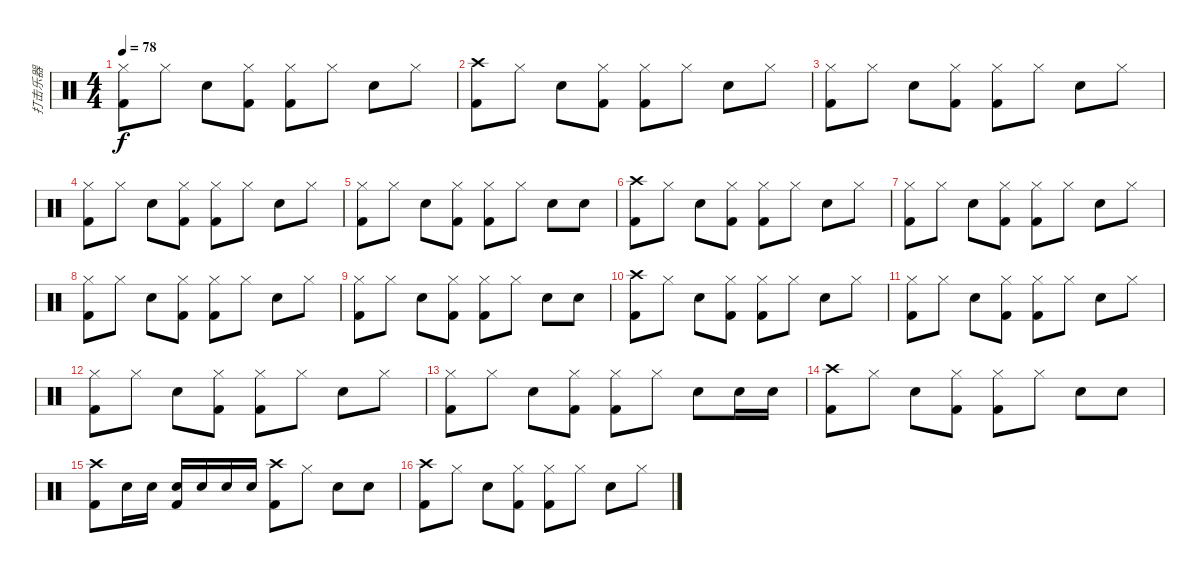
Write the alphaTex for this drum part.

\track ("打击乐器" "打击乐器") {instrument percussion}
\staff {score}
\articulation defaults
\ts (4 4)
\tempo 78
\clef neutral
\ks c
("Hi-Hat (closed)" "Kick (hit) 2").8{dy f} "Hi-Hat (closed)".8 "Snare (hit) 2".8 ("Hi-Hat (closed)" "Kick (hit) 2").8 ("Hi-Hat (closed)" "Kick (hit) 2").8 "Hi-Hat (closed)".8 "Snare (hit) 2".8 "Hi-Hat (closed)".8 |
("Crash high (hit)" "Kick (hit) 2").8 "Hi-Hat (closed)".8 "Snare (hit) 2".8 ("Hi-Hat (closed)" "Kick (hit) 2").8 ("Hi-Hat (closed)" "Kick (hit) 2").8 "Hi-Hat (closed)".8 "Snare (hit) 2".8 "Hi-Hat (closed)".8 |
("Hi-Hat (closed)" "Kick (hit) 2").8 "Hi-Hat (closed)".8 "Snare (hit) 2".8 ("Hi-Hat (closed)" "Kick (hit) 2").8 ("Hi-Hat (closed)" "Kick (hit) 2").8 "Hi-Hat (closed)".8 "Snare (hit) 2".8 "Hi-Hat (closed)".8 |
("Hi-Hat (closed)" "Kick (hit) 2").8 "Hi-Hat (closed)".8 "Snare (hit) 2".8 ("Hi-Hat (closed)" "Kick (hit) 2").8 ("Hi-Hat (closed)" "Kick (hit) 2").8 "Hi-Hat (closed)".8 "Snare (hit) 2".8 "Hi-Hat (closed)".8 |
("Hi-Hat (closed)" "Kick (hit) 2").8 "Hi-Hat (closed)".8 "Snare (hit) 2".8 ("Hi-Hat (closed)" "Kick (hit) 2").8 ("Hi-Hat (closed)" "Kick (hit) 2").8 "Hi-Hat (closed)".8 "Snare (hit) 2".8 "Snare (hit) 2".8 |
("Crash high (hit)" "Kick (hit) 2").8 "Hi-Hat (closed)".8 "Snare (hit) 2".8 ("Hi-Hat (closed)" "Kick (hit) 2").8 ("Hi-Hat (closed)" "Kick (hit) 2").8 "Hi-Hat (closed)".8 "Snare (hit) 2".8 "Hi-Hat (closed)".8 |
("Hi-Hat (closed)" "Kick (hit) 2").8 "Hi-Hat (closed)".8 "Snare (hit) 2".8 ("Hi-Hat (closed)" "Kick (hit) 2").8 ("Hi-Hat (closed)" "Kick (hit) 2").8 "Hi-Hat (closed)".8 "Snare (hit) 2".8 "Hi-Hat (closed)".8 |
("Hi-Hat (closed)" "Kick (hit) 2").8 "Hi-Hat (closed)".8 "Snare (hit) 2".8 ("Hi-Hat (closed)" "Kick (hit) 2").8 ("Hi-Hat (closed)" "Kick (hit) 2").8 "Hi-Hat (closed)".8 "Snare (hit) 2".8 "Hi-Hat (closed)".8 |
("Hi-Hat (closed)" "Kick (hit) 2").8 "Hi-Hat (closed)".8 "Snare (hit) 2".8 ("Hi-Hat (closed)" "Kick (hit) 2").8 ("Hi-Hat (closed)" "Kick (hit) 2").8 "Hi-Hat (closed)".8 "Snare (hit) 2".8 "Snare (hit) 2".8 |
("Crash high (hit)" "Kick (hit) 2").8 "Hi-Hat (closed)".8 "Snare (hit) 2".8 ("Hi-Hat (closed)" "Kick (hit) 2").8 ("Hi-Hat (closed)" "Kick (hit) 2").8 "Hi-Hat (closed)".8 "Snare (hit) 2".8 "Hi-Hat (closed)".8 |
("Hi-Hat (closed)" "Kick (hit) 2").8 "Hi-Hat (closed)".8 "Snare (hit) 2".8 ("Hi-Hat (closed)" "Kick (hit) 2").8 ("Hi-Hat (closed)" "Kick (hit) 2").8 "Hi-Hat (closed)".8 "Snare (hit) 2".8 "Hi-Hat (closed)".8 |
("Hi-Hat (closed)" "Kick (hit) 2").8 "Hi-Hat (closed)".8 "Snare (hit) 2".8 ("Hi-Hat (closed)" "Kick (hit) 2").8 ("Hi-Hat (closed)" "Kick (hit) 2").8 "Hi-Hat (closed)".8 "Snare (hit) 2".8 "Hi-Hat (closed)".8 |
("Hi-Hat (closed)" "Kick (hit) 2").8 "Hi-Hat (closed)".8 "Snare (hit) 2".8 ("Hi-Hat (closed)" "Kick (hit) 2").8 ("Hi-Hat (closed)" "Kick (hit) 2").8 "Hi-Hat (closed)".8 "Snare (hit) 2".8 "Snare (hit) 2".16 "Snare (hit) 2".16 |
("Crash high (hit)" "Kick (hit) 2").8 "Hi-Hat (closed)".8 "Snare (hit) 2".8 ("Hi-Hat (closed)" "Kick (hit) 2").8 ("Hi-Hat (closed)" "Kick (hit) 2").8 "Hi-Hat (closed)".8 "Snare (hit) 2".8 "Snare (hit) 2".8 |
("Crash high (hit)" "Kick (hit) 2").8 "Snare (hit) 2".16 "Snare (hit) 2".16 ("Electric Snare (hit)" "Kick (hit) 2").16 "Electric Snare (hit)".16 "Electric Snare (hit)".16 "Electric Snare (hit)".16 ("Crash high (hit)" "Kick (hit) 2").8 "Hi-Hat (closed)".8 "Snare (hit) 2".8 "Snare (hit) 2".8 |
("Crash high (hit)" "Kick (hit) 2").8 "Hi-Hat (closed)".8 "Snare (hit) 2".8 ("Hi-Hat (closed)" "Kick (hit) 2").8 ("Hi-Hat (closed)" "Kick (hit) 2").8 "Hi-Hat (closed)".8 "Snare (hit) 2".8 "Hi-Hat (closed)".8
